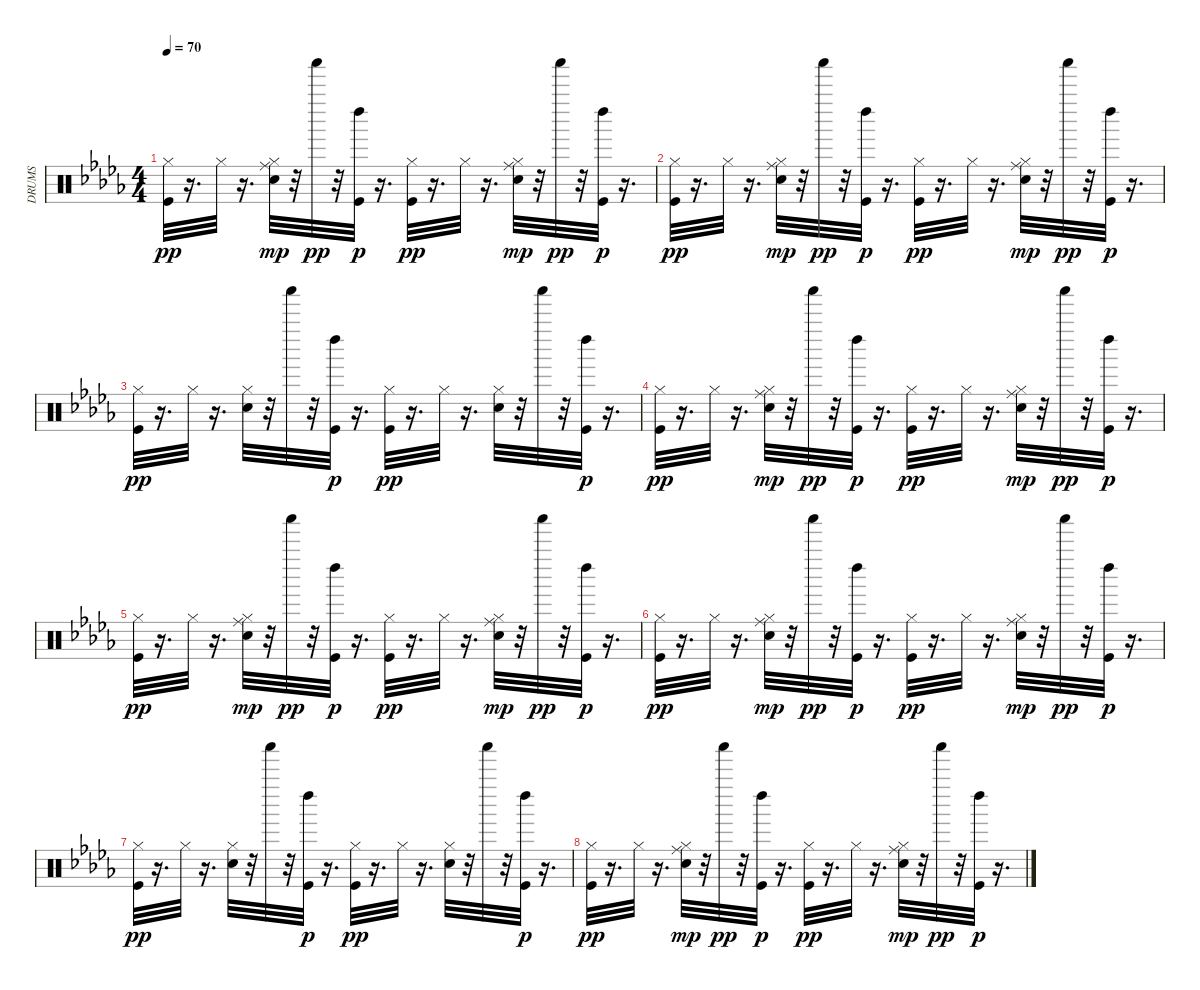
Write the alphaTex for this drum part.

\track ("DRUMS" "DRUMS") {instrument percussion}
\staff {score}
\articulation defaults
\ts (4 4)
\tempo 70
\clef neutral
\ks bbminor
("Kick (hit)" "Hi-Hat (closed)").32{dy pp} r.16{d} "Hi-Hat (closed)".32 r.16{d} ("Electric Snare (hit)" "Hi-Hat (closed)" "Ride (middle)").32{dy mp} r.32 "Shaker (hit)".32{dy pp} r.32 ("Kick (hit)" "Left Maraca (hit)").32{dy p} r.16{d} ("Kick (hit)" "Hi-Hat (closed)").32{dy pp} r.16{d} "Hi-Hat (closed)".32 r.16{d} ("Electric Snare (hit)" "Hi-Hat (closed)" "Ride (middle)").32{dy mp} r.32 "Shaker (hit)".32{dy pp} r.32 ("Kick (hit)" "Left Maraca (hit)").32{dy p} r.16{d} |
("Kick (hit)" "Hi-Hat (closed)").32{dy pp} r.16{d} "Hi-Hat (closed)".32 r.16{d} ("Electric Snare (hit)" "Hi-Hat (closed)" "Ride (middle)").32{dy mp} r.32 "Shaker (hit)".32{dy pp} r.32 ("Kick (hit)" "Left Maraca (hit)").32{dy p} r.16{d} ("Kick (hit)" "Hi-Hat (closed)").32{dy pp} r.16{d} "Hi-Hat (closed)".32 r.16{d} ("Electric Snare (hit)" "Hi-Hat (closed)" "Ride (middle)").32{dy mp} r.32 "Shaker (hit)".32{dy pp} r.32 ("Kick (hit)" "Left Maraca (hit)").32{dy p} r.16{d} |
("Kick (hit)" "Hi-Hat (closed)").32{dy pp} r.16{d} "Hi-Hat (closed)".32 r.16{d} ("Electric Snare (hit)" "Hi-Hat (closed)").32 r.32 "Shaker (hit)".32 r.32 ("Kick (hit)" "Left Maraca (hit)").32{dy p} r.16{d} ("Kick (hit)" "Hi-Hat (closed)").32{dy pp} r.16{d} "Hi-Hat (closed)".32 r.16{d} ("Electric Snare (hit)" "Hi-Hat (closed)").32 r.32 "Shaker (hit)".32 r.32 ("Kick (hit)" "Left Maraca (hit)").32{dy p} r.16{d} |
("Kick (hit)" "Hi-Hat (closed)").32{dy pp} r.16{d} "Hi-Hat (closed)".32 r.16{d} ("Electric Snare (hit)" "Hi-Hat (closed)" "Ride (middle)").32{dy mp} r.32 "Shaker (hit)".32{dy pp} r.32 ("Kick (hit)" "Left Maraca (hit)").32{dy p} r.16{d} ("Kick (hit)" "Hi-Hat (closed)").32{dy pp} r.16{d} "Hi-Hat (closed)".32 r.16{d} ("Electric Snare (hit)" "Hi-Hat (closed)" "Ride (middle)").32{dy mp} r.32 "Shaker (hit)".32{dy pp} r.32 ("Kick (hit)" "Left Maraca (hit)").32{dy p} r.16{d} |
("Kick (hit)" "Hi-Hat (closed)").32{dy pp} r.16{d} "Hi-Hat (closed)".32 r.16{d} ("Electric Snare (hit)" "Hi-Hat (closed)" "Ride (middle)").32{dy mp} r.32 "Shaker (hit)".32{dy pp} r.32 ("Kick (hit)" "Left Maraca (hit)").32{dy p} r.16{d} ("Kick (hit)" "Hi-Hat (closed)").32{dy pp} r.16{d} "Hi-Hat (closed)".32 r.16{d} ("Electric Snare (hit)" "Hi-Hat (closed)" "Ride (middle)").32{dy mp} r.32 "Shaker (hit)".32{dy pp} r.32 ("Kick (hit)" "Left Maraca (hit)").32{dy p} r.16{d} |
("Kick (hit)" "Hi-Hat (closed)").32{dy pp} r.16{d} "Hi-Hat (closed)".32 r.16{d} ("Electric Snare (hit)" "Hi-Hat (closed)" "Ride (middle)").32{dy mp} r.32 "Shaker (hit)".32{dy pp} r.32 ("Kick (hit)" "Left Maraca (hit)").32{dy p} r.16{d} ("Kick (hit)" "Hi-Hat (closed)").32{dy pp} r.16{d} "Hi-Hat (closed)".32 r.16{d} ("Electric Snare (hit)" "Hi-Hat (closed)" "Ride (middle)").32{dy mp} r.32 "Shaker (hit)".32{dy pp} r.32 ("Kick (hit)" "Left Maraca (hit)").32{dy p} r.16{d} |
("Kick (hit)" "Hi-Hat (closed)").32{dy pp} r.16{d} "Hi-Hat (closed)".32 r.16{d} ("Electric Snare (hit)" "Hi-Hat (closed)").32 r.32 "Shaker (hit)".32 r.32 ("Kick (hit)" "Left Maraca (hit)").32{dy p} r.16{d} ("Kick (hit)" "Hi-Hat (closed)").32{dy pp} r.16{d} "Hi-Hat (closed)".32 r.16{d} ("Electric Snare (hit)" "Hi-Hat (closed)").32 r.32 "Shaker (hit)".32 r.32 ("Kick (hit)" "Left Maraca (hit)").32{dy p} r.16{d} |
("Kick (hit)" "Hi-Hat (closed)").32{dy pp} r.16{d} "Hi-Hat (closed)".32 r.16{d} ("Electric Snare (hit)" "Hi-Hat (closed)" "Ride (middle)").32{dy mp} r.32 "Shaker (hit)".32{dy pp} r.32 ("Kick (hit)" "Left Maraca (hit)").32{dy p} r.16{d} ("Kick (hit)" "Hi-Hat (closed)").32{dy pp} r.16{d} "Hi-Hat (closed)".32 r.16{d} ("Electric Snare (hit)" "Hi-Hat (closed)" "Ride (middle)").32{dy mp} r.32 "Shaker (hit)".32{dy pp} r.32 ("Kick (hit)" "Left Maraca (hit)").32{dy p} r.16{d}
